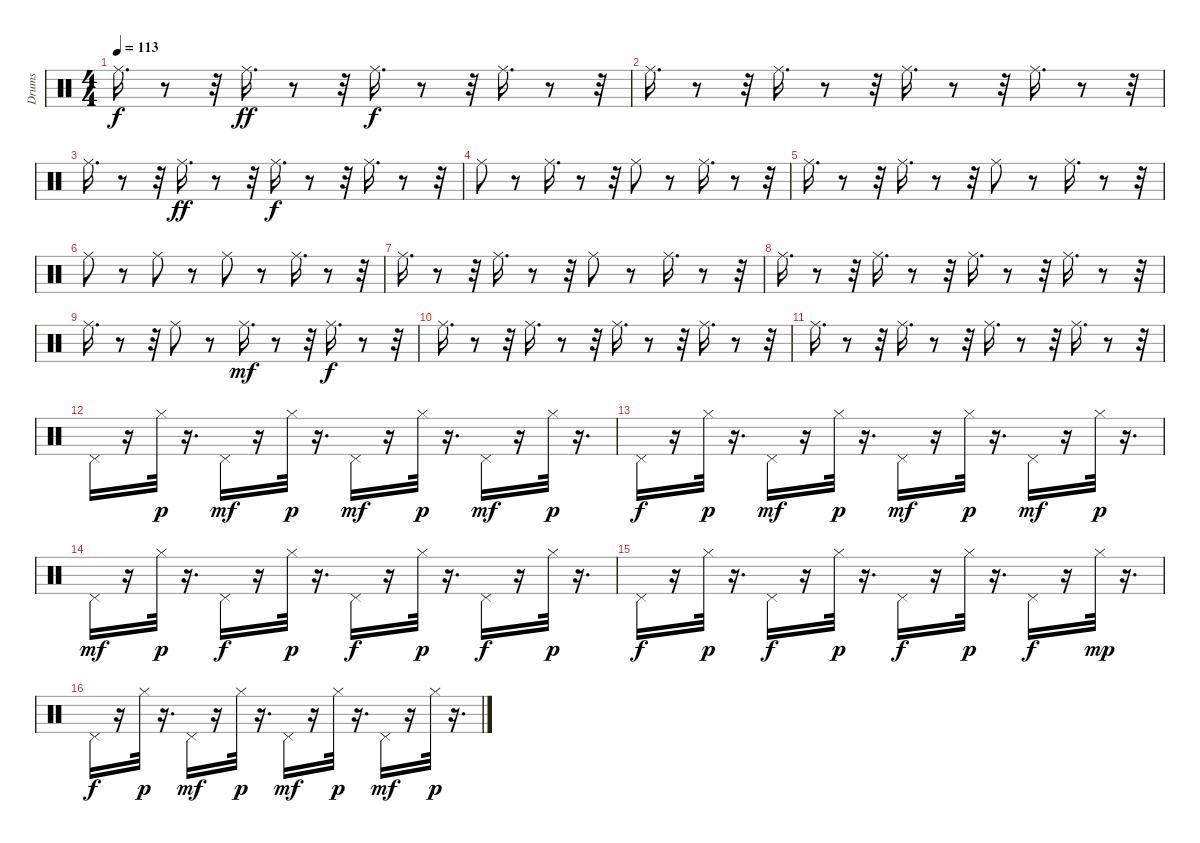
\track ("Drums" "Drums") {instrument percussion}
\staff {score}
\articulation defaults
\ts (4 4)
\tempo 113
\clef neutral
\ks c "Ride (middle)".16{d dy f}
r.8 r.32 "Ride (middle)".16{d dy ff} r.8 r.32 "Ride (middle)".16{d dy f} r.8 r.32 "Ride (middle)".16{d} r.8 r.32 |
"Ride (middle)".16{d} r.8 r.32 "Ride (middle)".16{d} r.8 r.32 "Ride (middle)".16{d} r.8 r.32 "Ride (middle)".16{d} r.8 r.32 |
"Ride (middle)".16{d} r.8 r.32 "Ride (middle)".16{d dy ff} r.8 r.32 "Ride (middle)".16{d dy f} r.8 r.32 "Ride (middle)".16{d} r.8 r.32 |
"Ride (middle)".8 r.8 "Ride (middle)".16{d} r.8 r.32 "Ride (middle)".8 r.8 "Ride (middle)".16{d} r.8 r.32 |
"Ride (middle)".16{d} r.8 r.32 "Ride (middle)".16{d} r.8 r.32 "Ride (middle)".8 r.8 "Ride (middle)".16{d} r.8 r.32 |
"Ride (middle)".8 r.8 "Ride (middle)".8 r.8 "Ride (middle)".8 r.8 "Ride (middle)".16{d} r.8 r.32 |
"Ride (middle)".16{d} r.8 r.32 "Ride (middle)".16{d} r.8 r.32 "Ride (middle)".8 r.8 "Ride (middle)".16{d} r.8 r.32 |
"Ride (middle)".16{d} r.8 r.32 "Ride (middle)".16{d} r.8 r.32 "Ride (middle)".16{d} r.8 r.32 "Ride (middle)".16{d} r.8 r.32 |
"Ride (middle)".16{d} r.8 r.32 "Ride (middle)".8 r.8 "Ride (middle)".16{d dy mf} r.8 r.32 "Ride (middle)".16{d dy f} r.8 r.32 |
"Ride (middle)".16{d} r.8 r.32 "Ride (middle)".16{d} r.8 r.32 "Ride (middle)".16{d} r.8 r.32 "Ride (middle)".16{d} r.8 r.32 |
"Ride (middle)".16{d} r.8 r.32 "Ride (middle)".16{d} r.8 r.32 "Ride (middle)".16{d} r.8 r.32 "Ride (middle)".16{d} r.8 r.32 |
"Pedal Hi-Hat (hit)".16 r.16 "Hi-Hat (closed)".32{dy p} r.16{d} "Pedal Hi-Hat (hit)".16{dy mf} r.16 "Hi-Hat (closed)".32{dy p} r.16{d} "Pedal Hi-Hat (hit)".16{dy mf} r.16 "Hi-Hat (closed)".32{dy p} r.16{d} "Pedal Hi-Hat (hit)".16{dy mf} r.16 "Hi-Hat (closed)".32{dy p} r.16{d} |
"Pedal Hi-Hat (hit)".16{dy f} r.16 "Hi-Hat (closed)".32{dy p} r.16{d} "Pedal Hi-Hat (hit)".16{dy mf} r.16 "Hi-Hat (closed)".32{dy p} r.16{d} "Pedal Hi-Hat (hit)".16{dy mf} r.16 "Hi-Hat (closed)".32{dy p} r.16{d} "Pedal Hi-Hat (hit)".16{dy mf} r.16 "Hi-Hat (closed)".32{dy p} r.16{d} |
"Pedal Hi-Hat (hit)".16{dy mf} r.16 "Hi-Hat (closed)".32{dy p} r.16{d} "Pedal Hi-Hat (hit)".16{dy f} r.16 "Hi-Hat (closed)".32{dy p} r.16{d} "Pedal Hi-Hat (hit)".16{dy f} r.16 "Hi-Hat (closed)".32{dy p} r.16{d} "Pedal Hi-Hat (hit)".16{dy f} r.16 "Hi-Hat (closed)".32{dy p} r.16{d} |
"Pedal Hi-Hat (hit)".16{dy f} r.16 "Hi-Hat (closed)".32{dy p} r.16{d} "Pedal Hi-Hat (hit)".16{dy f} r.16 "Hi-Hat (closed)".32{dy p} r.16{d} "Pedal Hi-Hat (hit)".16{dy f} r.16 "Hi-Hat (closed)".32{dy p} r.16{d} "Pedal Hi-Hat (hit)".16{dy f} r.16 "Hi-Hat (closed)".32{dy mp} r.16{d} |
"Pedal Hi-Hat (hit)".16{dy f} r.16 "Hi-Hat (closed)".32{dy p} r.16{d} "Pedal Hi-Hat (hit)".16{dy mf} r.16 "Hi-Hat (closed)".32{dy p} r.16{d} "Pedal Hi-Hat (hit)".16{dy mf} r.16 "Hi-Hat (closed)".32{dy p} r.16{d} "Pedal Hi-Hat (hit)".16{dy mf} r.16 "Hi-Hat (closed)".32{dy p} r.16{d}
